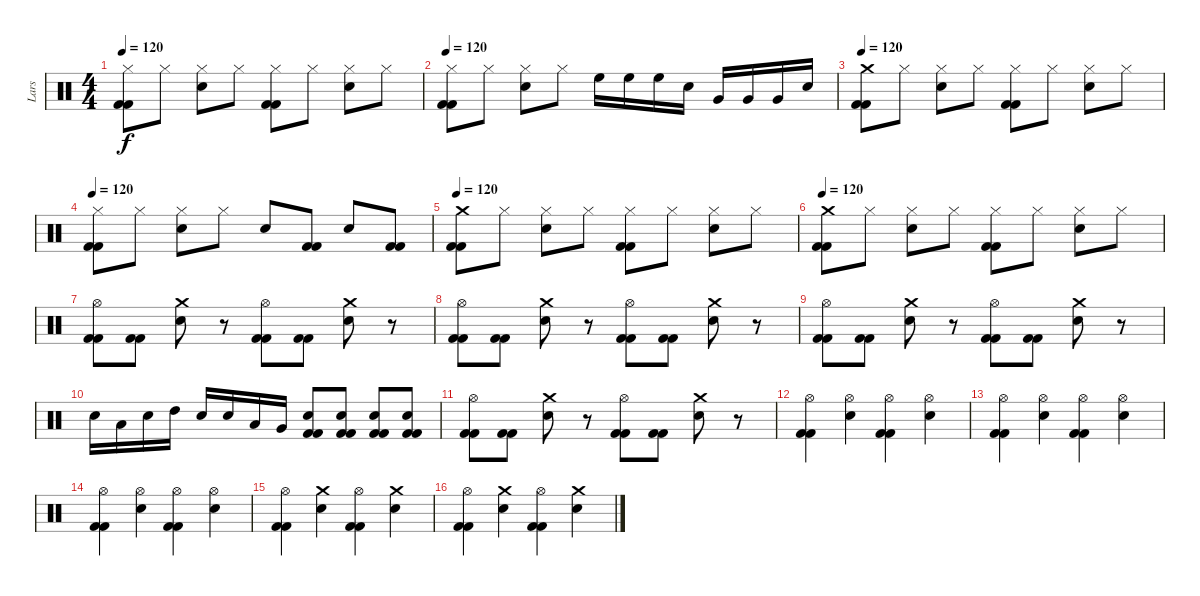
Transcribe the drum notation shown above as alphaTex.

\track ("Lars" "Lars") {instrument percussion}
\staff {score}
\articulation defaults
\ts (4 4)
\tempo 120
\clef neutral
\ks c
("Hi-Hat (closed)" "Kick (hit) 2" "Kick (hit) 2").8{dy f} "Hi-Hat (closed)".8 ("Electric Snare (hit)" "Hi-Hat (closed)").8 "Hi-Hat (closed)".8 ("Hi-Hat (closed)" "Kick (hit) 2" "Kick (hit) 2").8 "Hi-Hat (closed)".8 ("Electric Snare (hit)" "Hi-Hat (closed)").8 "Hi-Hat (closed)".8 |
\tempo 120
("Hi-Hat (closed)" "Kick (hit) 2" "Kick (hit) 2").8 "Hi-Hat (closed)".8 ("Electric Snare (hit)" "Hi-Hat (closed)").8 "Hi-Hat (closed)".8 "High Floor Tom (hit)".16 "High Floor Tom (hit)".16 "High Floor Tom (hit)".16 "Electric Snare (hit)".16 "Very Low Tom (hit)".16 "Very Low Tom (hit)".16 "Very Low Tom (hit)".16 "Electric Snare (hit)".16 |
\tempo 120
("Crash medium (hit)" "Kick (hit) 2" "Kick (hit) 2").8 "Hi-Hat (closed)".8 ("Electric Snare (hit)" "Hi-Hat (closed)").8 "Hi-Hat (closed)".8 ("Hi-Hat (closed)" "Kick (hit) 2" "Kick (hit) 2").8 "Hi-Hat (closed)".8 ("Electric Snare (hit)" "Hi-Hat (closed)").8 "Hi-Hat (closed)".8 |
\tempo 120
("Hi-Hat (closed)" "Kick (hit) 2" "Kick (hit) 2").8 "Hi-Hat (closed)".8 ("Electric Snare (hit)" "Hi-Hat (closed)").8 "Hi-Hat (closed)".8 "Electric Snare (hit)".8 ("Kick (hit) 2" "Kick (hit) 2").8 "Electric Snare (hit)".8 ("Kick (hit) 2" "Kick (hit) 2").8 |
\tempo 120
("Crash medium (hit)" "Kick (hit) 2" "Kick (hit) 2").8 "Hi-Hat (closed)".8 ("Electric Snare (hit)" "Hi-Hat (closed)").8 "Hi-Hat (closed)".8 ("Hi-Hat (closed)" "Kick (hit) 2" "Kick (hit) 2").8 "Hi-Hat (closed)".8 ("Electric Snare (hit)" "Hi-Hat (closed)").8 "Hi-Hat (closed)".8 |
\tempo 120
("Crash medium (hit)" "Kick (hit) 2" "Kick (hit) 2").8 "Hi-Hat (closed)".8 ("Electric Snare (hit)" "Hi-Hat (closed)").8 "Hi-Hat (closed)".8 ("Hi-Hat (closed)" "Kick (hit) 2" "Kick (hit) 2").8 "Hi-Hat (closed)".8 ("Electric Snare (hit)" "Hi-Hat (closed)").8 "Hi-Hat (closed)".8 |
("Hi-Hat (open)" "Kick (hit) 2" "Kick (hit) 2").8 ("Kick (hit) 2" "Kick (hit) 2").8 ("Electric Snare (hit)" "Crash medium (hit)").8 r.8 ("Hi-Hat (open)" "Kick (hit) 2" "Kick (hit) 2").8 ("Kick (hit) 2" "Kick (hit) 2").8 ("Electric Snare (hit)" "Crash medium (hit)").8 r.8 |
("Hi-Hat (open)" "Kick (hit) 2" "Kick (hit) 2").8 ("Kick (hit) 2" "Kick (hit) 2").8 ("Electric Snare (hit)" "Crash medium (hit)").8 r.8 ("Hi-Hat (open)" "Kick (hit) 2" "Kick (hit) 2").8 ("Kick (hit) 2" "Kick (hit) 2").8 ("Electric Snare (hit)" "Crash medium (hit)").8 r.8 |
("Hi-Hat (open)" "Kick (hit) 2" "Kick (hit) 2").8 ("Kick (hit) 2" "Kick (hit) 2").8 ("Electric Snare (hit)" "Crash medium (hit)").8 r.8 ("Hi-Hat (open)" "Kick (hit) 2" "Kick (hit) 2").8 ("Kick (hit) 2" "Kick (hit) 2").8 ("Electric Snare (hit)" "Crash medium (hit)").8 r.8 |
"Electric Snare (hit)".16 "Low Tom (hit)".16 "Electric Snare (hit)".16 "High Tom (hit)".16 "Electric Snare (hit)".16 "Electric Snare (hit)".16 "Low Tom (hit)".16 "Very Low Tom (hit)".16 ("Electric Snare (hit)" "Kick (hit) 2" "Kick (hit) 2").8 ("Kick (hit) 2" "Kick (hit) 2" "Electric Snare (hit)").8 ("Electric Snare (hit)" "Kick (hit) 2" "Kick (hit) 2").8 ("Kick (hit) 2" "Kick (hit) 2" "Electric Snare (hit)").8 |
("Hi-Hat (open)" "Kick (hit) 2" "Kick (hit) 2").8 ("Kick (hit) 2" "Kick (hit) 2").8 ("Electric Snare (hit)" "Crash medium (hit)").8 r.8 ("Hi-Hat (open)" "Kick (hit) 2" "Kick (hit) 2").8 ("Kick (hit) 2" "Kick (hit) 2").8 ("Electric Snare (hit)" "Crash medium (hit)").8 r.8 |
("Hi-Hat (open)" "Kick (hit) 2" "Kick (hit) 2").4 ("Hi-Hat (open)" "Electric Snare (hit)").4 ("Kick (hit) 2" "Kick (hit) 2" "Hi-Hat (open)").4 ("Hi-Hat (open)" "Electric Snare (hit)").4 |
("Hi-Hat (open)" "Kick (hit) 2" "Kick (hit) 2").4 ("Hi-Hat (open)" "Electric Snare (hit)").4 ("Kick (hit) 2" "Kick (hit) 2" "Hi-Hat (open)").4 ("Hi-Hat (open)" "Electric Snare (hit)").4 |
("Hi-Hat (open)" "Kick (hit) 2" "Kick (hit) 2").4 ("Hi-Hat (open)" "Electric Snare (hit)").4 ("Kick (hit) 2" "Kick (hit) 2" "Hi-Hat (open)").4 ("Hi-Hat (open)" "Electric Snare (hit)").4 |
("Hi-Hat (open)" "Kick (hit) 2" "Kick (hit) 2").4 ("Crash medium (hit)" "Electric Snare (hit)").4 ("Kick (hit) 2" "Kick (hit) 2" "Hi-Hat (open)").4 ("Crash medium (hit)" "Electric Snare (hit)").4 |
("Hi-Hat (open)" "Kick (hit) 2" "Kick (hit) 2").4 ("Crash medium (hit)" "Electric Snare (hit)").4 ("Kick (hit) 2" "Kick (hit) 2" "Hi-Hat (open)").4 ("Crash medium (hit)" "Electric Snare (hit)").4
